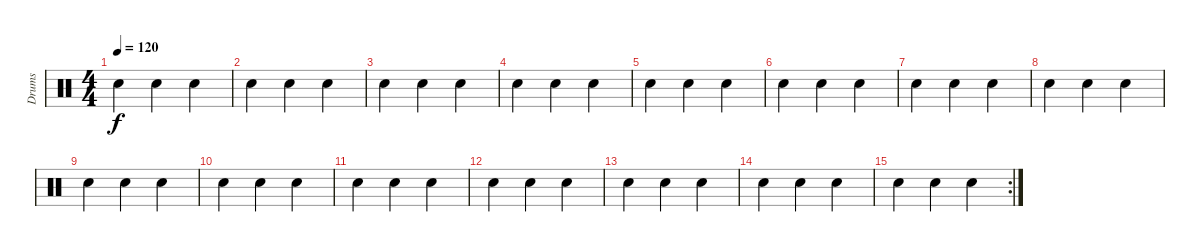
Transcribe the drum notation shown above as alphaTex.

\track ("Drums" "Drums") {instrument percussion}
\staff {score}
\articulation defaults
\ts (4 4)
\tempo 120
\clef neutral
\ks c "Snare (hit) 2".4{dy f} "Snare (hit) 2".4 "Snare (hit) 2".4
|
"Snare (hit) 2".4 "Snare (hit) 2".4 "Snare (hit) 2".4 |
"Snare (hit) 2".4 "Snare (hit) 2".4 "Snare (hit) 2".4 |
"Snare (hit) 2".4 "Snare (hit) 2".4 "Snare (hit) 2".4 |
"Snare (hit) 2".4 "Snare (hit) 2".4 "Snare (hit) 2".4 |
"Snare (hit) 2".4 "Snare (hit) 2".4 "Snare (hit) 2".4 |
"Snare (hit) 2".4 "Snare (hit) 2".4 "Snare (hit) 2".4 |
"Snare (hit) 2".4 "Snare (hit) 2".4 "Snare (hit) 2".4 |
"Snare (hit) 2".4 "Snare (hit) 2".4 "Snare (hit) 2".4 |
"Snare (hit) 2".4 "Snare (hit) 2".4 "Snare (hit) 2".4 |
"Snare (hit) 2".4 "Snare (hit) 2".4 "Snare (hit) 2".4 |
"Snare (hit) 2".4 "Snare (hit) 2".4 "Snare (hit) 2".4 |
"Snare (hit) 2".4 "Snare (hit) 2".4 "Snare (hit) 2".4 |
"Snare (hit) 2".4 "Snare (hit) 2".4 "Snare (hit) 2".4 |
\rc 2 "Snare (hit) 2".4 "Snare (hit) 2".4 "Snare (hit) 2".4
